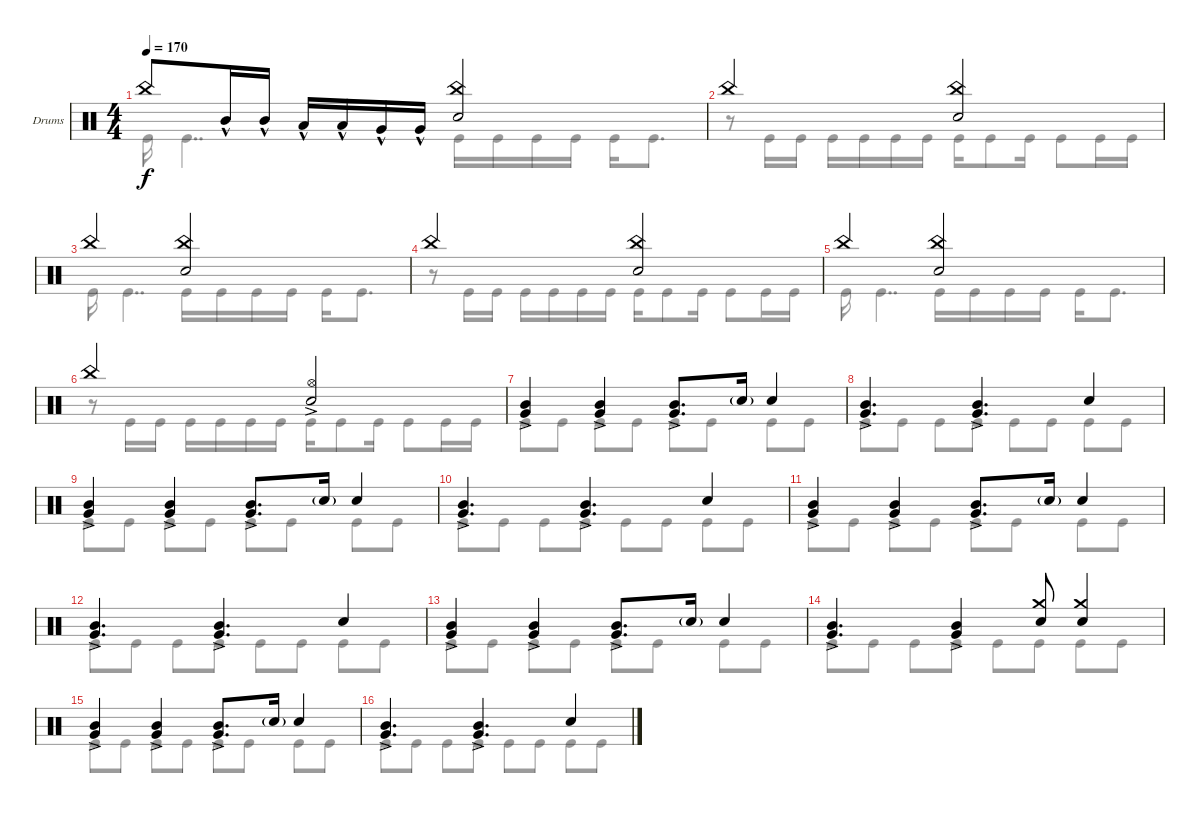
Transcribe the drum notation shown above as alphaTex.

\defaultSystemsLayout 4
\bracketExtendMode groupsimilarinstruments
\firstSystemTrackNameOrientation horizontal
\otherSystemsTrackNameOrientation horizontal
\track ("Drumkit" "Drums") {instrument percussion}
\staff {score}
\articulation defaults
\voice
\ts (4 4)
\tempo 170
\clef neutral
\ks c "China (hit)".8{dy f} "Mid Tom (hit)"{hac}.16 "Mid Tom (hit)"{hac}.16 "Low Tom (hit)"{hac}.16 "Low Tom (hit)"{hac}.16 "Very Low Tom (hit)"{hac}.16 "Very Low Tom (hit)"{hac}.16
("Snare (hit) 2" "China (hit)").2 |
"China (hit)".2 ("China (hit)" "Snare (hit) 2").2 |
"China (hit)".2 ("China (hit)" "Snare (hit) 2").2 |
"China (hit)".2 ("China (hit)" "Snare (hit) 2").2 |
"China (hit)".2 ("China (hit)" "Snare (hit) 2").2 |
"China (hit)".2 ("Snare (hit) 2" "Hi-Hat (open)"{ac}).2 |
("Very Low Tom (hit)"{ac} "Mid Tom (hit)"{ac}).4 ("Very Low Tom (hit)"{ac} "Mid Tom (hit)"{ac}).4 ("Very Low Tom (hit)"{ac} "Mid Tom (hit)"{ac}).8{d} "Snare (hit) 2"{g}.16 "Snare (hit) 2".4 |
("Mid Tom (hit)"{ac} "Very Low Tom (hit)"{ac}).4{d} ("Mid Tom (hit)"{ac} "Very Low Tom (hit)"{ac}).4{d} "Snare (hit) 2".4 |
("Very Low Tom (hit)"{ac} "Mid Tom (hit)"{ac}).4 ("Very Low Tom (hit)"{ac} "Mid Tom (hit)"{ac}).4 ("Very Low Tom (hit)"{ac} "Mid Tom (hit)"{ac}).8{d} "Snare (hit) 2"{g}.16 "Snare (hit) 2".4 |
("Mid Tom (hit)"{ac} "Very Low Tom (hit)"{ac}).4{d} ("Mid Tom (hit)"{ac} "Very Low Tom (hit)"{ac}).4{d} "Snare (hit) 2".4 |
("Very Low Tom (hit)"{ac} "Mid Tom (hit)"{ac}).4 ("Very Low Tom (hit)"{ac} "Mid Tom (hit)"{ac}).4 ("Very Low Tom (hit)"{ac} "Mid Tom (hit)"{ac}).8{d} "Snare (hit) 2"{g}.16 "Snare (hit) 2".4 |
("Mid Tom (hit)"{ac} "Very Low Tom (hit)"{ac}).4{d} ("Mid Tom (hit)"{ac} "Very Low Tom (hit)"{ac}).4{d} "Snare (hit) 2".4 |
("Very Low Tom (hit)"{ac} "Mid Tom (hit)"{ac}).4 ("Very Low Tom (hit)"{ac} "Mid Tom (hit)"{ac}).4 ("Very Low Tom (hit)"{ac} "Mid Tom (hit)"{ac}).8{d} "Snare (hit) 2"{g}.16 "Snare (hit) 2".4 |
("Mid Tom (hit)"{ac} "Very Low Tom (hit)"{ac}).4{d} ("Mid Tom (hit)"{ac} "Very Low Tom (hit)"{ac}).4 ("Snare (hit) 2" "Crash medium (hit)").8 ("Snare (hit) 2" "Crash medium (hit)").4 |
("Very Low Tom (hit)"{ac} "Mid Tom (hit)"{ac}).4 ("Very Low Tom (hit)"{ac} "Mid Tom (hit)"{ac}).4 ("Very Low Tom (hit)"{ac} "Mid Tom (hit)"{ac}).8{d} "Snare (hit) 2"{g}.16 "Snare (hit) 2".4 |
("Mid Tom (hit)"{ac} "Very Low Tom (hit)"{ac}).4{d} ("Mid Tom (hit)"{ac} "Very Low Tom (hit)"{ac}).4{d} "Snare (hit) 2".4
\voice
\clef neutral
\ottava regular
\simile none
\ks c "Kick (hit)".16{dy f} "Kick (hit)".4{dd} "Kick (hit)".16 "Kick (hit)".16 "Kick (hit)".16 "Kick (hit)".16 "Kick (hit)".16 "Kick (hit)".8{d}
|
r.8 "Kick (hit)".16 "Kick (hit)".16 "Kick (hit)".16 "Kick (hit)".16 "Kick (hit)".16 "Kick (hit)".16 "Kick (hit)".16 "Kick (hit)".8 "Kick (hit)".16 "Kick (hit)".8 "Kick (hit)".16 "Kick (hit)".16 |
"Kick (hit)".16 "Kick (hit)".4{dd} "Kick (hit)".16 "Kick (hit)".16 "Kick (hit)".16 "Kick (hit)".16 "Kick (hit)".16 "Kick (hit)".8{d} |
r.8 "Kick (hit)".16 "Kick (hit)".16 "Kick (hit)".16 "Kick (hit)".16 "Kick (hit)".16 "Kick (hit)".16 "Kick (hit)".16 "Kick (hit)".8 "Kick (hit)".16 "Kick (hit)".8 "Kick (hit)".16 "Kick (hit)".16 |
"Kick (hit)".16 "Kick (hit)".4{dd} "Kick (hit)".16 "Kick (hit)".16 "Kick (hit)".16 "Kick (hit)".16 "Kick (hit)".16 "Kick (hit)".8{d} |
r.8 "Kick (hit)".16 "Kick (hit)".16 "Kick (hit)".16 "Kick (hit)".16 "Kick (hit)".16 "Kick (hit)".16 "Kick (hit)".16 "Kick (hit)".8 "Kick (hit)".16 "Kick (hit)".8 "Kick (hit)".16 "Kick (hit)".16 |
"Kick (hit)".8 "Kick (hit)".8 "Kick (hit)".8 "Kick (hit)".8 "Kick (hit)".8 "Kick (hit)".8 "Kick (hit)".8 "Kick (hit)".8 |
"Kick (hit)".8 "Kick (hit)".8 "Kick (hit)".8 "Kick (hit)".8 "Kick (hit)".8 "Kick (hit)".8 "Kick (hit)".8 "Kick (hit)".8 |
"Kick (hit)".8 "Kick (hit)".8 "Kick (hit)".8 "Kick (hit)".8 "Kick (hit)".8 "Kick (hit)".8 "Kick (hit)".8 "Kick (hit)".8 |
"Kick (hit)".8 "Kick (hit)".8 "Kick (hit)".8 "Kick (hit)".8 "Kick (hit)".8 "Kick (hit)".8 "Kick (hit)".8 "Kick (hit)".8 |
"Kick (hit)".8 "Kick (hit)".8 "Kick (hit)".8 "Kick (hit)".8 "Kick (hit)".8 "Kick (hit)".8 "Kick (hit)".8 "Kick (hit)".8 |
"Kick (hit)".8 "Kick (hit)".8 "Kick (hit)".8 "Kick (hit)".8 "Kick (hit)".8 "Kick (hit)".8 "Kick (hit)".8 "Kick (hit)".8 |
"Kick (hit)".8 "Kick (hit)".8 "Kick (hit)".8 "Kick (hit)".8 "Kick (hit)".8 "Kick (hit)".8 "Kick (hit)".8 "Kick (hit)".8 |
"Kick (hit)".8 "Kick (hit)".8 "Kick (hit)".8 "Kick (hit)".8 "Kick (hit)".8 "Kick (hit)".8 "Kick (hit)".8 "Kick (hit)".8 |
"Kick (hit)".8 "Kick (hit)".8 "Kick (hit)".8 "Kick (hit)".8 "Kick (hit)".8 "Kick (hit)".8 "Kick (hit)".8 "Kick (hit)".8 |
"Kick (hit)".8 "Kick (hit)".8 "Kick (hit)".8 "Kick (hit)".8 "Kick (hit)".8 "Kick (hit)".8 "Kick (hit)".8 "Kick (hit)".8
